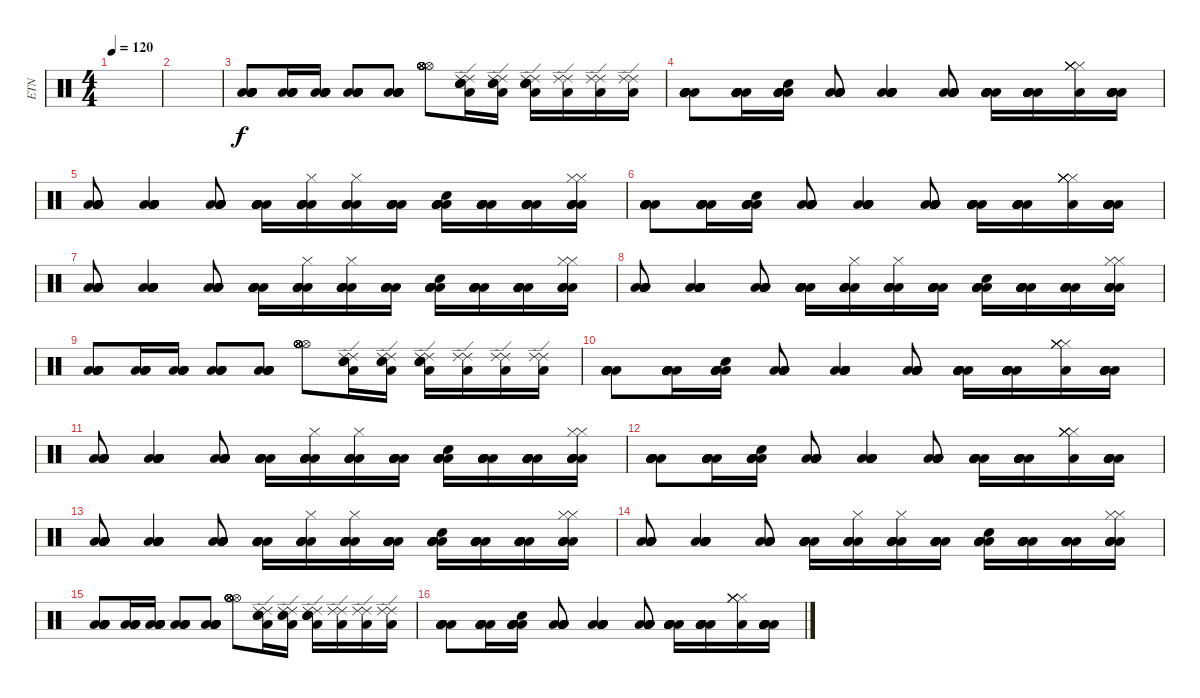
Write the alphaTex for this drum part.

\track ("ETN" "ETN") {instrument percussion}
\staff {score}
\articulation defaults
\ts (4 4)
\tempo 120
\clef neutral
\ks c
|
|
("Low Tom (hit)" "Low Tom (hit)" "Low Tom (hit)" "Low Tom (hit)" "Low Tom (hit)").8 ("Low Floor Tom (hit)" "Low Floor Tom (hit)" "Low Floor Tom (hit)" "Low Floor Tom (hit)").16 ("Low Tom (hit)" "Low Tom (hit)" "Low Tom (hit)" "Low Tom (hit)" "Low Tom (hit)").16 ("Low Floor Tom (hit)" "Low Floor Tom (hit)" "Low Floor Tom (hit)" "Low Floor Tom (hit)").8 ("Low Tom (hit)" "Low Tom (hit)" "Low Tom (hit)" "Low Tom (hit)" "Low Tom (hit)").8 ("Hi-Hat (open)" "Hi-Hat (open)" "Hi-Hat (open)" "Hi-Hat (open)" "Hi-Hat (open)" "Hi-Hat (open)").8 ("Ride (edge) 2" "Ride (edge) 2" "Snare (hit)"{x} "Snare (hit)"{x} "Snare (hit)"{x} "Low Floor Tom (hit)").16 ("Ride (edge) 2" "Ride (edge) 2" "Snare (hit)"{x} "Snare (hit)"{x} "Low Floor Tom (hit)").16 ("Ride (edge) 2" "Ride (edge) 2" "Snare (hit)"{x} "Snare (hit)"{x} "Snare (hit)"{x} "Low Floor Tom (hit)").16 ("Ride (edge) 2" "Ride (edge) 2" "Low Floor Tom (hit)").16 ("Ride (edge) 2" "Ride (edge) 2" "Low Tom (hit)").16 ("Ride (edge) 2" "Ride (edge) 2" "Low Tom (hit)").16 |
("Low Floor Tom (hit)" "Low Floor Tom (hit)" "Low Floor Tom (hit)" "Low Floor Tom (hit)" "Low Floor Tom (hit)" "Low Floor Tom (hit)").8 ("Low Floor Tom (hit)" "Low Floor Tom (hit)" "Low Floor Tom (hit)" "Low Floor Tom (hit)" "Low Floor Tom (hit)" "Low Floor Tom (hit)").16 ("Low Floor Tom (hit)" "Low Floor Tom (hit)" "Low Floor Tom (hit)" "Snare (hit)" "Low Floor Tom (hit)" "Low Floor Tom (hit)").16 ("Low Floor Tom (hit)" "Low Floor Tom (hit)" "Low Floor Tom (hit)" "Low Floor Tom (hit)" "Low Floor Tom (hit)" "Low Floor Tom (hit)").8 ("Low Tom (hit)" "Low Tom (hit)" "Low Tom (hit)" "Low Tom (hit)" "Low Tom (hit)" "Low Tom (hit)").4 ("Low Floor Tom (hit)" "Low Floor Tom (hit)" "Low Floor Tom (hit)" "Low Floor Tom (hit)" "Low Floor Tom (hit)" "Low Floor Tom (hit)").8 ("Low Floor Tom (hit)" "Low Floor Tom (hit)" "Low Floor Tom (hit)" "Low Floor Tom (hit)" "Low Floor Tom (hit)" "Low Floor Tom (hit)").16 ("Low Floor Tom (hit)" "Low Floor Tom (hit)" "Low Floor Tom (hit)" "Low Floor Tom (hit)" "Low Floor Tom (hit)" "Low Floor Tom (hit)").16 ("Hi-Hat (closed)" "Hi-Hat (closed)" "Hi-Hat (closed)" "Hi-Hat (closed)" "Hi-Hat (closed)" "Low Floor Tom (hit)").16 ("Low Floor Tom (hit)" "Low Floor Tom (hit)" "Low Floor Tom (hit)" "Low Floor Tom (hit)" "Low Floor Tom (hit)" "Low Floor Tom (hit)").16 |
("Low Floor Tom (hit)" "Low Floor Tom (hit)" "Low Floor Tom (hit)" "Low Floor Tom (hit)" "Low Floor Tom (hit)" "Low Floor Tom (hit)").8 ("Low Tom (hit)" "Low Tom (hit)" "Low Tom (hit)" "Low Tom (hit)" "Low Tom (hit)" "Low Tom (hit)").4 ("Low Floor Tom (hit)" "Low Floor Tom (hit)" "Low Floor Tom (hit)" "Low Floor Tom (hit)" "Low Floor Tom (hit)" "Low Floor Tom (hit)").8 ("Low Floor Tom (hit)" "Low Floor Tom (hit)" "Low Floor Tom (hit)" "Low Floor Tom (hit)" "Low Floor Tom (hit)" "Low Floor Tom (hit)").16 ("Hi-Hat (closed)" "Low Floor Tom (hit)" "Low Floor Tom (hit)" "Low Floor Tom (hit)" "Low Floor Tom (hit)" "Low Floor Tom (hit)").16 ("Hi-Hat (closed)" "Low Floor Tom (hit)" "Low Floor Tom (hit)" "Low Floor Tom (hit)" "Low Floor Tom (hit)" "Low Floor Tom (hit)").16 ("Low Floor Tom (hit)" "Low Floor Tom (hit)" "Low Floor Tom (hit)" "Low Floor Tom (hit)" "Low Floor Tom (hit)" "Low Floor Tom (hit)").16 ("Low Floor Tom (hit)" "Low Floor Tom (hit)" "Low Floor Tom (hit)" "Low Floor Tom (hit)" "Low Floor Tom (hit)" "Snare (hit)").16 ("Low Tom (hit)" "Low Tom (hit)" "Low Tom (hit)" "Low Tom (hit)" "Low Floor Tom (hit)" "Low Floor Tom (hit)").16 ("Low Floor Tom (hit)" "Low Floor Tom (hit)" "Low Floor Tom (hit)" "Low Floor Tom (hit)" "Low Floor Tom (hit)" "Low Floor Tom (hit)").16 ("Low Floor Tom (hit)" "Low Floor Tom (hit)" "Low Floor Tom (hit)" "Hi-Hat (closed)" "Hi-Hat (closed)" "Low Tom (hit)").16 |
("Low Floor Tom (hit)" "Low Floor Tom (hit)" "Low Floor Tom (hit)" "Low Floor Tom (hit)" "Low Floor Tom (hit)" "Low Floor Tom (hit)").8 ("Low Floor Tom (hit)" "Low Floor Tom (hit)" "Low Floor Tom (hit)" "Low Floor Tom (hit)" "Low Floor Tom (hit)" "Low Floor Tom (hit)").16 ("Low Floor Tom (hit)" "Low Floor Tom (hit)" "Low Floor Tom (hit)" "Snare (hit)" "Low Floor Tom (hit)" "Low Floor Tom (hit)").16 ("Low Floor Tom (hit)" "Low Floor Tom (hit)" "Low Floor Tom (hit)" "Low Floor Tom (hit)" "Low Floor Tom (hit)" "Low Floor Tom (hit)").8 ("Low Tom (hit)" "Low Tom (hit)" "Low Tom (hit)" "Low Tom (hit)" "Low Tom (hit)" "Low Tom (hit)").4 ("Low Floor Tom (hit)" "Low Floor Tom (hit)" "Low Floor Tom (hit)" "Low Floor Tom (hit)" "Low Floor Tom (hit)" "Low Floor Tom (hit)").8 ("Low Floor Tom (hit)" "Low Floor Tom (hit)" "Low Floor Tom (hit)" "Low Floor Tom (hit)" "Low Floor Tom (hit)" "Low Floor Tom (hit)").16 ("Low Floor Tom (hit)" "Low Floor Tom (hit)" "Low Floor Tom (hit)" "Low Floor Tom (hit)" "Low Floor Tom (hit)" "Low Floor Tom (hit)").16 ("Hi-Hat (closed)" "Hi-Hat (closed)" "Hi-Hat (closed)" "Hi-Hat (closed)" "Hi-Hat (closed)" "Low Tom (hit)").16 ("Low Floor Tom (hit)" "Low Floor Tom (hit)" "Low Floor Tom (hit)" "Low Floor Tom (hit)" "Low Floor Tom (hit)" "Low Floor Tom (hit)").16 |
("Low Floor Tom (hit)" "Low Floor Tom (hit)" "Low Floor Tom (hit)" "Low Floor Tom (hit)" "Low Floor Tom (hit)" "Low Floor Tom (hit)").8 ("Low Tom (hit)" "Low Tom (hit)" "Low Tom (hit)" "Low Tom (hit)" "Low Tom (hit)" "Low Tom (hit)").4 ("Low Floor Tom (hit)" "Low Floor Tom (hit)" "Low Floor Tom (hit)" "Low Floor Tom (hit)" "Low Floor Tom (hit)" "Low Floor Tom (hit)").8 ("Low Floor Tom (hit)" "Low Floor Tom (hit)" "Low Floor Tom (hit)" "Low Floor Tom (hit)" "Low Floor Tom (hit)" "Low Floor Tom (hit)").16 ("Hi-Hat (closed)" "Low Floor Tom (hit)" "Low Floor Tom (hit)" "Low Floor Tom (hit)" "Low Floor Tom (hit)" "Low Floor Tom (hit)").16 ("Hi-Hat (closed)" "Low Floor Tom (hit)" "Low Floor Tom (hit)" "Low Floor Tom (hit)" "Low Floor Tom (hit)" "Low Floor Tom (hit)").16 ("Low Floor Tom (hit)" "Low Floor Tom (hit)" "Low Floor Tom (hit)" "Low Floor Tom (hit)" "Low Floor Tom (hit)" "Low Floor Tom (hit)").16 ("Low Floor Tom (hit)" "Low Floor Tom (hit)" "Low Floor Tom (hit)" "Low Floor Tom (hit)" "Low Floor Tom (hit)" "Snare (hit)").16 ("Low Tom (hit)" "Low Tom (hit)" "Low Tom (hit)" "Low Tom (hit)" "Low Floor Tom (hit)" "Low Floor Tom (hit)").16 ("Low Floor Tom (hit)" "Low Floor Tom (hit)" "Low Floor Tom (hit)" "Low Floor Tom (hit)" "Low Floor Tom (hit)" "Low Floor Tom (hit)").16 ("Low Floor Tom (hit)" "Low Floor Tom (hit)" "Low Floor Tom (hit)" "Hi-Hat (closed)" "Hi-Hat (closed)" "Low Tom (hit)").16 |
("Low Floor Tom (hit)" "Low Floor Tom (hit)" "Low Floor Tom (hit)" "Low Floor Tom (hit)" "Low Floor Tom (hit)" "Low Floor Tom (hit)").8 ("Low Tom (hit)" "Low Tom (hit)" "Low Tom (hit)" "Low Tom (hit)" "Low Tom (hit)" "Low Tom (hit)").4 ("Low Floor Tom (hit)" "Low Floor Tom (hit)" "Low Floor Tom (hit)" "Low Floor Tom (hit)" "Low Floor Tom (hit)" "Low Floor Tom (hit)").8 ("Low Floor Tom (hit)" "Low Floor Tom (hit)" "Low Floor Tom (hit)" "Low Floor Tom (hit)" "Low Floor Tom (hit)" "Low Floor Tom (hit)").16 ("Hi-Hat (closed)" "Low Floor Tom (hit)" "Low Floor Tom (hit)" "Low Floor Tom (hit)" "Low Floor Tom (hit)" "Low Floor Tom (hit)").16 ("Hi-Hat (closed)" "Low Floor Tom (hit)" "Low Floor Tom (hit)" "Low Floor Tom (hit)" "Low Floor Tom (hit)" "Low Floor Tom (hit)").16 ("Low Floor Tom (hit)" "Low Floor Tom (hit)" "Low Floor Tom (hit)" "Low Floor Tom (hit)" "Low Floor Tom (hit)" "Low Floor Tom (hit)").16 ("Low Floor Tom (hit)" "Low Floor Tom (hit)" "Low Floor Tom (hit)" "Low Floor Tom (hit)" "Low Floor Tom (hit)" "Snare (hit)").16 ("Low Tom (hit)" "Low Tom (hit)" "Low Tom (hit)" "Low Tom (hit)" "Low Floor Tom (hit)" "Low Floor Tom (hit)").16 ("Low Floor Tom (hit)" "Low Floor Tom (hit)" "Low Floor Tom (hit)" "Low Floor Tom (hit)" "Low Floor Tom (hit)" "Low Floor Tom (hit)").16 ("Low Floor Tom (hit)" "Low Floor Tom (hit)" "Low Floor Tom (hit)" "Hi-Hat (closed)" "Hi-Hat (closed)" "Low Tom (hit)").16 |
("Low Tom (hit)" "Low Tom (hit)" "Low Tom (hit)" "Low Tom (hit)" "Low Tom (hit)").8 ("Low Floor Tom (hit)" "Low Floor Tom (hit)" "Low Floor Tom (hit)" "Low Floor Tom (hit)").16 ("Low Tom (hit)" "Low Tom (hit)" "Low Tom (hit)" "Low Tom (hit)" "Low Tom (hit)").16 ("Low Floor Tom (hit)" "Low Floor Tom (hit)" "Low Floor Tom (hit)" "Low Floor Tom (hit)").8 ("Low Tom (hit)" "Low Tom (hit)" "Low Tom (hit)" "Low Tom (hit)" "Low Tom (hit)").8 ("Hi-Hat (open)" "Hi-Hat (open)" "Hi-Hat (open)" "Hi-Hat (open)" "Hi-Hat (open)" "Hi-Hat (open)").8 ("Ride (edge) 2" "Ride (edge) 2" "Snare (hit)"{x} "Snare (hit)"{x} "Snare (hit)"{x} "Low Floor Tom (hit)").16 ("Ride (edge) 2" "Ride (edge) 2" "Snare (hit)"{x} "Snare (hit)"{x} "Low Floor Tom (hit)").16 ("Ride (edge) 2" "Ride (edge) 2" "Snare (hit)"{x} "Snare (hit)"{x} "Snare (hit)"{x} "Low Floor Tom (hit)").16 ("Ride (edge) 2" "Ride (edge) 2" "Low Floor Tom (hit)").16 ("Ride (edge) 2" "Ride (edge) 2" "Low Tom (hit)").16 ("Ride (edge) 2" "Ride (edge) 2" "Low Tom (hit)").16 |
("Low Floor Tom (hit)" "Low Floor Tom (hit)" "Low Floor Tom (hit)" "Low Floor Tom (hit)" "Low Floor Tom (hit)" "Low Floor Tom (hit)").8 ("Low Floor Tom (hit)" "Low Floor Tom (hit)" "Low Floor Tom (hit)" "Low Floor Tom (hit)" "Low Floor Tom (hit)" "Low Floor Tom (hit)").16 ("Low Floor Tom (hit)" "Low Floor Tom (hit)" "Low Floor Tom (hit)" "Snare (hit)" "Low Floor Tom (hit)" "Low Floor Tom (hit)").16 ("Low Floor Tom (hit)" "Low Floor Tom (hit)" "Low Floor Tom (hit)" "Low Floor Tom (hit)" "Low Floor Tom (hit)" "Low Floor Tom (hit)").8 ("Low Tom (hit)" "Low Tom (hit)" "Low Tom (hit)" "Low Tom (hit)" "Low Tom (hit)" "Low Tom (hit)").4 ("Low Floor Tom (hit)" "Low Floor Tom (hit)" "Low Floor Tom (hit)" "Low Floor Tom (hit)" "Low Floor Tom (hit)" "Low Floor Tom (hit)").8 ("Low Floor Tom (hit)" "Low Floor Tom (hit)" "Low Floor Tom (hit)" "Low Floor Tom (hit)" "Low Floor Tom (hit)" "Low Floor Tom (hit)").16 ("Low Floor Tom (hit)" "Low Floor Tom (hit)" "Low Floor Tom (hit)" "Low Floor Tom (hit)" "Low Floor Tom (hit)" "Low Floor Tom (hit)").16 ("Hi-Hat (closed)" "Hi-Hat (closed)" "Hi-Hat (closed)" "Hi-Hat (closed)" "Hi-Hat (closed)" "Low Floor Tom (hit)").16 ("Low Floor Tom (hit)" "Low Floor Tom (hit)" "Low Floor Tom (hit)" "Low Floor Tom (hit)" "Low Floor Tom (hit)" "Low Floor Tom (hit)").16 |
("Low Floor Tom (hit)" "Low Floor Tom (hit)" "Low Floor Tom (hit)" "Low Floor Tom (hit)" "Low Floor Tom (hit)" "Low Floor Tom (hit)").8 ("Low Tom (hit)" "Low Tom (hit)" "Low Tom (hit)" "Low Tom (hit)" "Low Tom (hit)" "Low Tom (hit)").4 ("Low Floor Tom (hit)" "Low Floor Tom (hit)" "Low Floor Tom (hit)" "Low Floor Tom (hit)" "Low Floor Tom (hit)" "Low Floor Tom (hit)").8 ("Low Floor Tom (hit)" "Low Floor Tom (hit)" "Low Floor Tom (hit)" "Low Floor Tom (hit)" "Low Floor Tom (hit)" "Low Floor Tom (hit)").16 ("Hi-Hat (closed)" "Low Floor Tom (hit)" "Low Floor Tom (hit)" "Low Floor Tom (hit)" "Low Floor Tom (hit)" "Low Floor Tom (hit)").16 ("Hi-Hat (closed)" "Low Floor Tom (hit)" "Low Floor Tom (hit)" "Low Floor Tom (hit)" "Low Floor Tom (hit)" "Low Floor Tom (hit)").16 ("Low Floor Tom (hit)" "Low Floor Tom (hit)" "Low Floor Tom (hit)" "Low Floor Tom (hit)" "Low Floor Tom (hit)" "Low Floor Tom (hit)").16 ("Low Floor Tom (hit)" "Low Floor Tom (hit)" "Low Floor Tom (hit)" "Low Floor Tom (hit)" "Low Floor Tom (hit)" "Snare (hit)").16 ("Low Tom (hit)" "Low Tom (hit)" "Low Tom (hit)" "Low Tom (hit)" "Low Floor Tom (hit)" "Low Floor Tom (hit)").16 ("Low Floor Tom (hit)" "Low Floor Tom (hit)" "Low Floor Tom (hit)" "Low Floor Tom (hit)" "Low Floor Tom (hit)" "Low Floor Tom (hit)").16 ("Low Floor Tom (hit)" "Low Floor Tom (hit)" "Low Floor Tom (hit)" "Hi-Hat (closed)" "Hi-Hat (closed)" "Low Tom (hit)").16 |
("Low Floor Tom (hit)" "Low Floor Tom (hit)" "Low Floor Tom (hit)" "Low Floor Tom (hit)" "Low Floor Tom (hit)" "Low Floor Tom (hit)").8 ("Low Floor Tom (hit)" "Low Floor Tom (hit)" "Low Floor Tom (hit)" "Low Floor Tom (hit)" "Low Floor Tom (hit)" "Low Floor Tom (hit)").16 ("Low Floor Tom (hit)" "Low Floor Tom (hit)" "Low Floor Tom (hit)" "Snare (hit)" "Low Floor Tom (hit)" "Low Floor Tom (hit)").16 ("Low Floor Tom (hit)" "Low Floor Tom (hit)" "Low Floor Tom (hit)" "Low Floor Tom (hit)" "Low Floor Tom (hit)" "Low Floor Tom (hit)").8 ("Low Tom (hit)" "Low Tom (hit)" "Low Tom (hit)" "Low Tom (hit)" "Low Tom (hit)" "Low Tom (hit)").4 ("Low Floor Tom (hit)" "Low Floor Tom (hit)" "Low Floor Tom (hit)" "Low Floor Tom (hit)" "Low Floor Tom (hit)" "Low Floor Tom (hit)").8 ("Low Floor Tom (hit)" "Low Floor Tom (hit)" "Low Floor Tom (hit)" "Low Floor Tom (hit)" "Low Floor Tom (hit)" "Low Floor Tom (hit)").16 ("Low Floor Tom (hit)" "Low Floor Tom (hit)" "Low Floor Tom (hit)" "Low Floor Tom (hit)" "Low Floor Tom (hit)" "Low Floor Tom (hit)").16 ("Hi-Hat (closed)" "Hi-Hat (closed)" "Hi-Hat (closed)" "Hi-Hat (closed)" "Hi-Hat (closed)" "Low Tom (hit)").16 ("Low Floor Tom (hit)" "Low Floor Tom (hit)" "Low Floor Tom (hit)" "Low Floor Tom (hit)" "Low Floor Tom (hit)" "Low Floor Tom (hit)").16 |
("Low Floor Tom (hit)" "Low Floor Tom (hit)" "Low Floor Tom (hit)" "Low Floor Tom (hit)" "Low Floor Tom (hit)" "Low Floor Tom (hit)").8 ("Low Tom (hit)" "Low Tom (hit)" "Low Tom (hit)" "Low Tom (hit)" "Low Tom (hit)" "Low Tom (hit)").4 ("Low Floor Tom (hit)" "Low Floor Tom (hit)" "Low Floor Tom (hit)" "Low Floor Tom (hit)" "Low Floor Tom (hit)" "Low Floor Tom (hit)").8 ("Low Floor Tom (hit)" "Low Floor Tom (hit)" "Low Floor Tom (hit)" "Low Floor Tom (hit)" "Low Floor Tom (hit)" "Low Floor Tom (hit)").16 ("Hi-Hat (closed)" "Low Floor Tom (hit)" "Low Floor Tom (hit)" "Low Floor Tom (hit)" "Low Floor Tom (hit)" "Low Floor Tom (hit)").16 ("Hi-Hat (closed)" "Low Floor Tom (hit)" "Low Floor Tom (hit)" "Low Floor Tom (hit)" "Low Floor Tom (hit)" "Low Floor Tom (hit)").16 ("Low Floor Tom (hit)" "Low Floor Tom (hit)" "Low Floor Tom (hit)" "Low Floor Tom (hit)" "Low Floor Tom (hit)" "Low Floor Tom (hit)").16 ("Low Floor Tom (hit)" "Low Floor Tom (hit)" "Low Floor Tom (hit)" "Low Floor Tom (hit)" "Low Floor Tom (hit)" "Snare (hit)").16 ("Low Tom (hit)" "Low Tom (hit)" "Low Tom (hit)" "Low Tom (hit)" "Low Floor Tom (hit)" "Low Floor Tom (hit)").16 ("Low Floor Tom (hit)" "Low Floor Tom (hit)" "Low Floor Tom (hit)" "Low Floor Tom (hit)" "Low Floor Tom (hit)" "Low Floor Tom (hit)").16 ("Low Floor Tom (hit)" "Low Floor Tom (hit)" "Low Floor Tom (hit)" "Hi-Hat (closed)" "Hi-Hat (closed)" "Low Tom (hit)").16 |
("Low Floor Tom (hit)" "Low Floor Tom (hit)" "Low Floor Tom (hit)" "Low Floor Tom (hit)" "Low Floor Tom (hit)" "Low Floor Tom (hit)").8 ("Low Tom (hit)" "Low Tom (hit)" "Low Tom (hit)" "Low Tom (hit)" "Low Tom (hit)" "Low Tom (hit)").4 ("Low Floor Tom (hit)" "Low Floor Tom (hit)" "Low Floor Tom (hit)" "Low Floor Tom (hit)" "Low Floor Tom (hit)" "Low Floor Tom (hit)").8 ("Low Floor Tom (hit)" "Low Floor Tom (hit)" "Low Floor Tom (hit)" "Low Floor Tom (hit)" "Low Floor Tom (hit)" "Low Floor Tom (hit)").16 ("Hi-Hat (closed)" "Low Floor Tom (hit)" "Low Floor Tom (hit)" "Low Floor Tom (hit)" "Low Floor Tom (hit)" "Low Floor Tom (hit)").16 ("Hi-Hat (closed)" "Low Floor Tom (hit)" "Low Floor Tom (hit)" "Low Floor Tom (hit)" "Low Floor Tom (hit)" "Low Floor Tom (hit)").16 ("Low Floor Tom (hit)" "Low Floor Tom (hit)" "Low Floor Tom (hit)" "Low Floor Tom (hit)" "Low Floor Tom (hit)" "Low Floor Tom (hit)").16 ("Low Floor Tom (hit)" "Low Floor Tom (hit)" "Low Floor Tom (hit)" "Low Floor Tom (hit)" "Low Floor Tom (hit)" "Snare (hit)").16 ("Low Tom (hit)" "Low Tom (hit)" "Low Tom (hit)" "Low Tom (hit)" "Low Floor Tom (hit)" "Low Floor Tom (hit)").16 ("Low Floor Tom (hit)" "Low Floor Tom (hit)" "Low Floor Tom (hit)" "Low Floor Tom (hit)" "Low Floor Tom (hit)" "Low Floor Tom (hit)").16 ("Low Floor Tom (hit)" "Low Floor Tom (hit)" "Low Floor Tom (hit)" "Hi-Hat (closed)" "Hi-Hat (closed)" "Low Tom (hit)").16 |
("Low Tom (hit)" "Low Tom (hit)" "Low Tom (hit)" "Low Tom (hit)" "Low Tom (hit)").8 ("Low Floor Tom (hit)" "Low Floor Tom (hit)" "Low Floor Tom (hit)" "Low Floor Tom (hit)").16 ("Low Tom (hit)" "Low Tom (hit)" "Low Tom (hit)" "Low Tom (hit)" "Low Tom (hit)").16 ("Low Floor Tom (hit)" "Low Floor Tom (hit)" "Low Floor Tom (hit)" "Low Floor Tom (hit)").8 ("Low Tom (hit)" "Low Tom (hit)" "Low Tom (hit)" "Low Tom (hit)" "Low Tom (hit)").8 ("Hi-Hat (open)" "Hi-Hat (open)" "Hi-Hat (open)" "Hi-Hat (open)" "Hi-Hat (open)" "Hi-Hat (open)").8 ("Ride (edge) 2" "Ride (edge) 2" "Snare (hit)"{x} "Snare (hit)"{x} "Snare (hit)"{x} "Low Floor Tom (hit)").16 ("Ride (edge) 2" "Ride (edge) 2" "Snare (hit)"{x} "Snare (hit)"{x} "Low Floor Tom (hit)").16 ("Ride (edge) 2" "Ride (edge) 2" "Snare (hit)"{x} "Snare (hit)"{x} "Snare (hit)"{x} "Low Floor Tom (hit)").16 ("Ride (edge) 2" "Ride (edge) 2" "Low Floor Tom (hit)").16 ("Ride (edge) 2" "Ride (edge) 2" "Low Tom (hit)").16 ("Ride (edge) 2" "Ride (edge) 2" "Low Tom (hit)").16 |
("Low Floor Tom (hit)" "Low Floor Tom (hit)" "Low Floor Tom (hit)" "Low Floor Tom (hit)" "Low Floor Tom (hit)" "Low Floor Tom (hit)").8 ("Low Floor Tom (hit)" "Low Floor Tom (hit)" "Low Floor Tom (hit)" "Low Floor Tom (hit)" "Low Floor Tom (hit)" "Low Floor Tom (hit)").16 ("Low Floor Tom (hit)" "Low Floor Tom (hit)" "Low Floor Tom (hit)" "Snare (hit)" "Low Floor Tom (hit)" "Low Floor Tom (hit)").16 ("Low Floor Tom (hit)" "Low Floor Tom (hit)" "Low Floor Tom (hit)" "Low Floor Tom (hit)" "Low Floor Tom (hit)" "Low Floor Tom (hit)").8 ("Low Tom (hit)" "Low Tom (hit)" "Low Tom (hit)" "Low Tom (hit)" "Low Tom (hit)" "Low Tom (hit)").4 ("Low Floor Tom (hit)" "Low Floor Tom (hit)" "Low Floor Tom (hit)" "Low Floor Tom (hit)" "Low Floor Tom (hit)" "Low Floor Tom (hit)").8 ("Low Floor Tom (hit)" "Low Floor Tom (hit)" "Low Floor Tom (hit)" "Low Floor Tom (hit)" "Low Floor Tom (hit)" "Low Floor Tom (hit)").16 ("Low Floor Tom (hit)" "Low Floor Tom (hit)" "Low Floor Tom (hit)" "Low Floor Tom (hit)" "Low Floor Tom (hit)" "Low Floor Tom (hit)").16 ("Hi-Hat (closed)" "Hi-Hat (closed)" "Hi-Hat (closed)" "Hi-Hat (closed)" "Hi-Hat (closed)" "Low Floor Tom (hit)").16 ("Low Floor Tom (hit)" "Low Floor Tom (hit)" "Low Floor Tom (hit)" "Low Floor Tom (hit)" "Low Floor Tom (hit)" "Low Floor Tom (hit)").16
